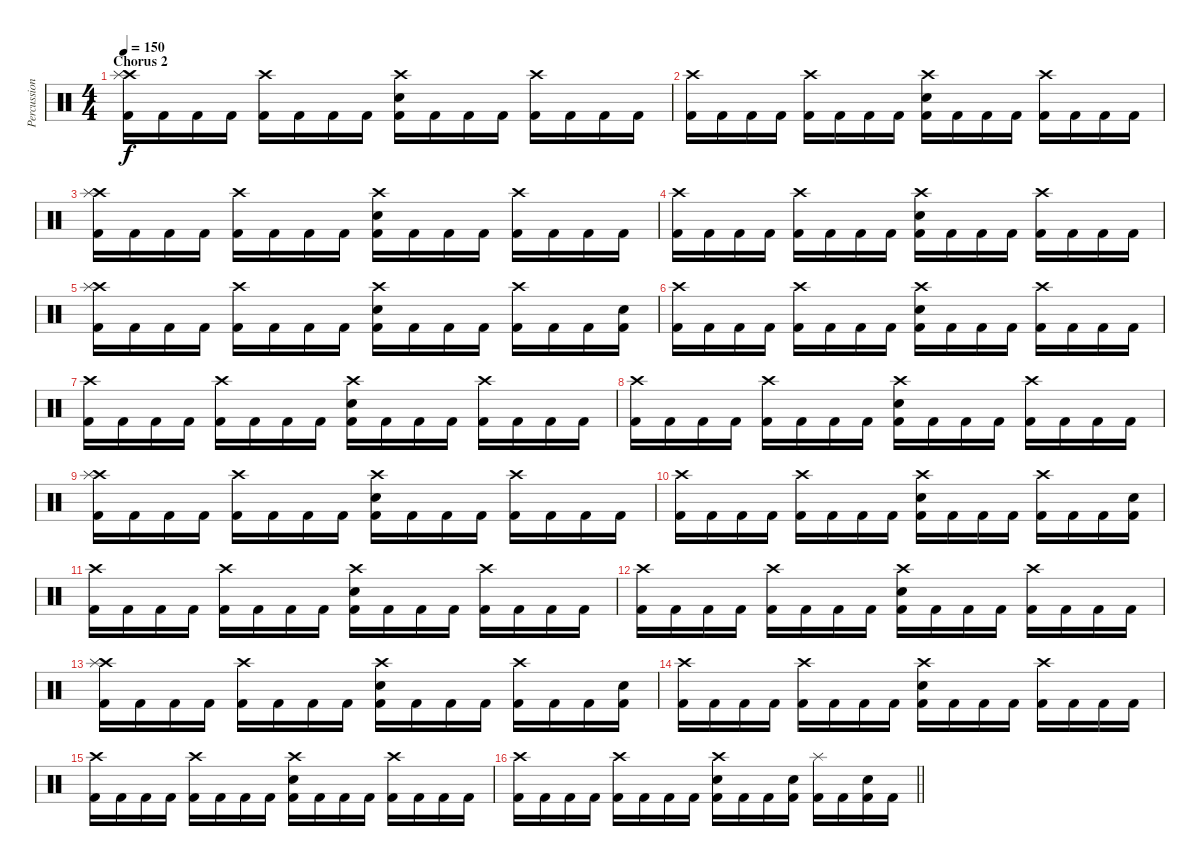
\track ("Percussion" "Percussion") {instrument percussion}
\staff {score}
\articulation defaults
\ts (4 4)
\section ("" "Chorus 2")
\tempo 150
\clef neutral
\ks c
("Crash high (hit)" "Splash (hit)" "Kick (hit) 2").16{dy f} "Kick (hit) 2".16 "Kick (hit) 2".16 "Kick (hit) 2".16 ("Crash high (hit)" "Kick (hit) 2").16 "Kick (hit) 2".16 "Kick (hit) 2".16 "Kick (hit) 2".16 ("Crash high (hit)" "Snare (hit) 2" "Kick (hit) 2").16 "Kick (hit) 2".16 "Kick (hit) 2".16 "Kick (hit) 2".16 ("Crash high (hit)" "Kick (hit) 2").16 "Kick (hit) 2".16 "Kick (hit) 2".16 "Kick (hit) 2".16 |
("Crash high (hit)" "Kick (hit) 2").16 "Kick (hit) 2".16 "Kick (hit) 2".16 "Kick (hit) 2".16 ("Crash high (hit)" "Kick (hit) 2").16 "Kick (hit) 2".16 "Kick (hit) 2".16 "Kick (hit) 2".16 ("Crash high (hit)" "Snare (hit) 2" "Kick (hit) 2").16 "Kick (hit) 2".16 "Kick (hit) 2".16 "Kick (hit) 2".16 ("Crash high (hit)" "Kick (hit) 2").16 "Kick (hit) 2".16 "Kick (hit) 2".16 "Kick (hit) 2".16 |
("Crash high (hit)" "Splash (hit)" "Kick (hit) 2").16 "Kick (hit) 2".16 "Kick (hit) 2".16 "Kick (hit) 2".16 ("Crash high (hit)" "Kick (hit) 2").16 "Kick (hit) 2".16 "Kick (hit) 2".16 "Kick (hit) 2".16 ("Crash high (hit)" "Snare (hit) 2" "Kick (hit) 2").16 "Kick (hit) 2".16 "Kick (hit) 2".16 "Kick (hit) 2".16 ("Crash high (hit)" "Kick (hit) 2").16 "Kick (hit) 2".16 "Kick (hit) 2".16 "Kick (hit) 2".16 |
("Crash high (hit)" "Kick (hit) 2").16 "Kick (hit) 2".16 "Kick (hit) 2".16 "Kick (hit) 2".16 ("Crash high (hit)" "Kick (hit) 2").16 "Kick (hit) 2".16 "Kick (hit) 2".16 "Kick (hit) 2".16 ("Crash high (hit)" "Snare (hit) 2" "Kick (hit) 2").16 "Kick (hit) 2".16 "Kick (hit) 2".16 "Kick (hit) 2".16 ("Crash high (hit)" "Kick (hit) 2").16 "Kick (hit) 2".16 "Kick (hit) 2".16 "Kick (hit) 2".16 |
("Crash high (hit)" "Splash (hit)" "Kick (hit) 2").16 "Kick (hit) 2".16 "Kick (hit) 2".16 "Kick (hit) 2".16 ("Crash high (hit)" "Kick (hit) 2").16 "Kick (hit) 2".16 "Kick (hit) 2".16 "Kick (hit) 2".16 ("Crash high (hit)" "Snare (hit) 2" "Kick (hit) 2").16 "Kick (hit) 2".16 "Kick (hit) 2".16 "Kick (hit) 2".16 ("Crash high (hit)" "Kick (hit) 2").16 "Kick (hit) 2".16 "Kick (hit) 2".16 ("Snare (hit) 2" "Kick (hit) 2").16 |
("Crash high (hit)" "Kick (hit) 2").16 "Kick (hit) 2".16 "Kick (hit) 2".16 "Kick (hit) 2".16 ("Crash high (hit)" "Kick (hit) 2").16 "Kick (hit) 2".16 "Kick (hit) 2".16 "Kick (hit) 2".16 ("Crash high (hit)" "Snare (hit) 2" "Kick (hit) 2").16 "Kick (hit) 2".16 "Kick (hit) 2".16 "Kick (hit) 2".16 ("Crash high (hit)" "Kick (hit) 2").16 "Kick (hit) 2".16 "Kick (hit) 2".16 "Kick (hit) 2".16 |
("Crash high (hit)" "Kick (hit) 2").16 "Kick (hit) 2".16 "Kick (hit) 2".16 "Kick (hit) 2".16 ("Crash high (hit)" "Kick (hit) 2").16 "Kick (hit) 2".16 "Kick (hit) 2".16 "Kick (hit) 2".16 ("Crash high (hit)" "Snare (hit) 2" "Kick (hit) 2").16 "Kick (hit) 2".16 "Kick (hit) 2".16 "Kick (hit) 2".16 ("Crash high (hit)" "Kick (hit) 2").16 "Kick (hit) 2".16 "Kick (hit) 2".16 "Kick (hit) 2".16 |
("Crash high (hit)" "Kick (hit) 2").16 "Kick (hit) 2".16 "Kick (hit) 2".16 "Kick (hit) 2".16 ("Crash high (hit)" "Kick (hit) 2").16 "Kick (hit) 2".16 "Kick (hit) 2".16 "Kick (hit) 2".16 ("Crash high (hit)" "Snare (hit) 2" "Kick (hit) 2").16 "Kick (hit) 2".16 "Kick (hit) 2".16 "Kick (hit) 2".16 ("Crash high (hit)" "Kick (hit) 2").16 "Kick (hit) 2".16 "Kick (hit) 2".16 "Kick (hit) 2".16 |
("Crash high (hit)" "Splash (hit)" "Kick (hit) 2").16 "Kick (hit) 2".16 "Kick (hit) 2".16 "Kick (hit) 2".16 ("Crash high (hit)" "Kick (hit) 2").16 "Kick (hit) 2".16 "Kick (hit) 2".16 "Kick (hit) 2".16 ("Crash high (hit)" "Snare (hit) 2" "Kick (hit) 2").16 "Kick (hit) 2".16 "Kick (hit) 2".16 "Kick (hit) 2".16 ("Crash high (hit)" "Kick (hit) 2").16 "Kick (hit) 2".16 "Kick (hit) 2".16 "Kick (hit) 2".16 |
("Crash high (hit)" "Kick (hit) 2").16 "Kick (hit) 2".16 "Kick (hit) 2".16 "Kick (hit) 2".16 ("Crash high (hit)" "Kick (hit) 2").16 "Kick (hit) 2".16 "Kick (hit) 2".16 "Kick (hit) 2".16 ("Crash high (hit)" "Snare (hit) 2" "Kick (hit) 2").16 "Kick (hit) 2".16 "Kick (hit) 2".16 "Kick (hit) 2".16 ("Crash high (hit)" "Kick (hit) 2").16 "Kick (hit) 2".16 "Kick (hit) 2".16 ("Snare (hit) 2" "Kick (hit) 2").16 |
("Crash high (hit)" "Kick (hit) 2").16 "Kick (hit) 2".16 "Kick (hit) 2".16 "Kick (hit) 2".16 ("Crash high (hit)" "Kick (hit) 2").16 "Kick (hit) 2".16 "Kick (hit) 2".16 "Kick (hit) 2".16 ("Crash high (hit)" "Snare (hit) 2" "Kick (hit) 2").16 "Kick (hit) 2".16 "Kick (hit) 2".16 "Kick (hit) 2".16 ("Crash high (hit)" "Kick (hit) 2").16 "Kick (hit) 2".16 "Kick (hit) 2".16 "Kick (hit) 2".16 |
("Crash high (hit)" "Kick (hit) 2").16 "Kick (hit) 2".16 "Kick (hit) 2".16 "Kick (hit) 2".16 ("Crash high (hit)" "Kick (hit) 2").16 "Kick (hit) 2".16 "Kick (hit) 2".16 "Kick (hit) 2".16 ("Crash high (hit)" "Snare (hit) 2" "Kick (hit) 2").16 "Kick (hit) 2".16 "Kick (hit) 2".16 "Kick (hit) 2".16 ("Crash high (hit)" "Kick (hit) 2").16 "Kick (hit) 2".16 "Kick (hit) 2".16 "Kick (hit) 2".16 |
("Crash high (hit)" "Splash (hit)" "Kick (hit) 2").16 "Kick (hit) 2".16 "Kick (hit) 2".16 "Kick (hit) 2".16 ("Crash high (hit)" "Kick (hit) 2").16 "Kick (hit) 2".16 "Kick (hit) 2".16 "Kick (hit) 2".16 ("Crash high (hit)" "Snare (hit) 2" "Kick (hit) 2").16 "Kick (hit) 2".16 "Kick (hit) 2".16 "Kick (hit) 2".16 ("Crash high (hit)" "Kick (hit) 2").16 "Kick (hit) 2".16 "Kick (hit) 2".16 ("Snare (hit) 2" "Kick (hit) 2").16 |
("Crash high (hit)" "Kick (hit) 2").16 "Kick (hit) 2".16 "Kick (hit) 2".16 "Kick (hit) 2".16 ("Crash high (hit)" "Kick (hit) 2").16 "Kick (hit) 2".16 "Kick (hit) 2".16 "Kick (hit) 2".16 ("Crash high (hit)" "Snare (hit) 2" "Kick (hit) 2").16 "Kick (hit) 2".16 "Kick (hit) 2".16 "Kick (hit) 2".16 ("Crash high (hit)" "Kick (hit) 2").16 "Kick (hit) 2".16 "Kick (hit) 2".16 "Kick (hit) 2".16 |
("Crash high (hit)" "Kick (hit) 2").16 "Kick (hit) 2".16 "Kick (hit) 2".16 "Kick (hit) 2".16 ("Crash high (hit)" "Kick (hit) 2").16 "Kick (hit) 2".16 "Kick (hit) 2".16 "Kick (hit) 2".16 ("Crash high (hit)" "Snare (hit) 2" "Kick (hit) 2").16 "Kick (hit) 2".16 "Kick (hit) 2".16 "Kick (hit) 2".16 ("Crash high (hit)" "Kick (hit) 2").16 "Kick (hit) 2".16 "Kick (hit) 2".16 "Kick (hit) 2".16 |
\barLineRight lightlight
("Crash high (hit)" "Kick (hit) 2").16 "Kick (hit) 2".16 "Kick (hit) 2".16 "Kick (hit) 2".16 ("Crash high (hit)" "Kick (hit) 2").16 "Kick (hit) 2".16 "Kick (hit) 2".16 "Kick (hit) 2".16 ("Crash high (hit)" "Snare (hit) 2" "Kick (hit) 2").16 "Kick (hit) 2".16 "Kick (hit) 2".16 ("Snare (hit) 2" "Kick (hit) 2").16 ("Splash (hit)" "Kick (hit) 2").16 "Kick (hit) 2".16 ("Snare (hit) 2" "Kick (hit) 2").16 "Kick (hit) 2".16
